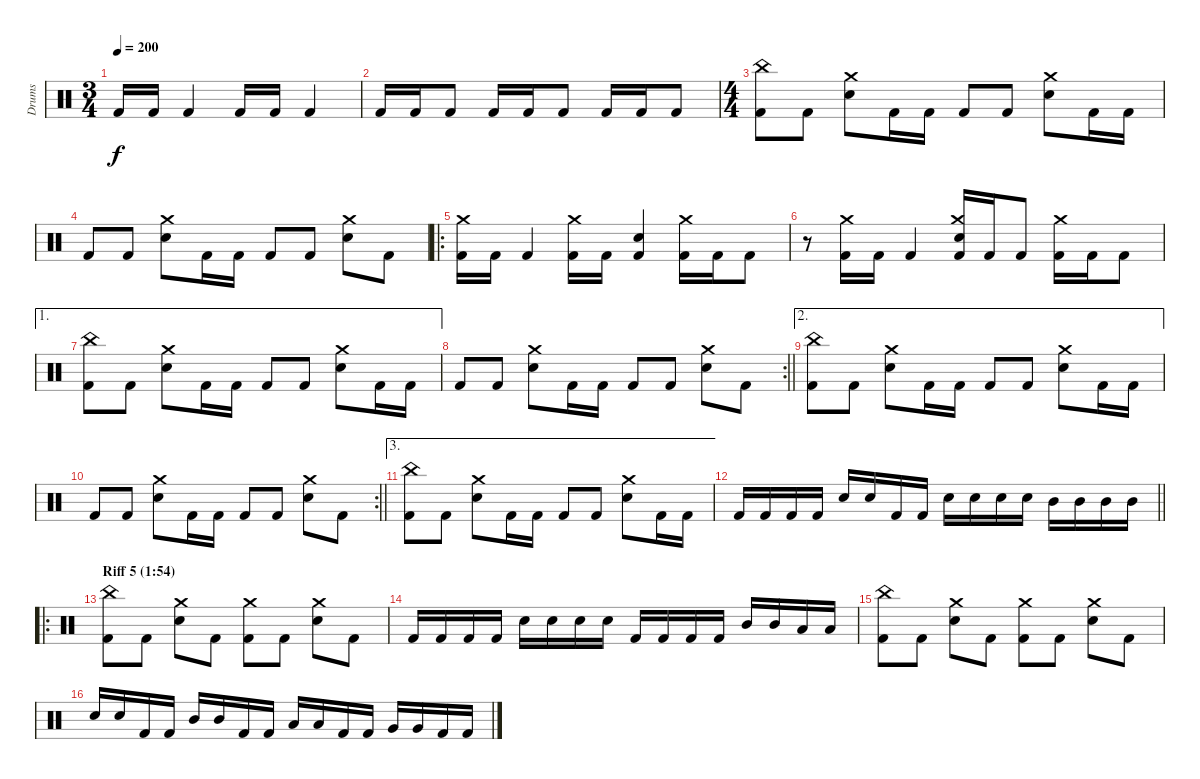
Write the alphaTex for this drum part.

\track ("Drums" "Drums") {instrument percussion}
\staff {score}
\articulation defaults
\ts (3 4)
\tempo 200
\clef neutral
\ks c "Kick (hit) 2".16{dy f} "Kick (hit) 2".16 "Kick (hit) 2".4 "Kick (hit) 2".16 "Kick (hit) 2".16 "Kick (hit) 2".4
|
"Kick (hit) 2".16 "Kick (hit) 2".16 "Kick (hit) 2".8 "Kick (hit) 2".16 "Kick (hit) 2".16 "Kick (hit) 2".8 "Kick (hit) 2".16 "Kick (hit) 2".16 "Kick (hit) 2".8 |
\ts (4 4)
("China (hit)" "Kick (hit) 2").8 "Kick (hit) 2".8 ("Crash medium (hit)" "Electric Snare (hit)").8 "Kick (hit) 2".16 "Kick (hit) 2".16 "Kick (hit) 2".8 "Kick (hit) 2".8 ("Crash medium (hit)" "Electric Snare (hit)").8 "Kick (hit) 2".16 "Kick (hit) 2".16 |
"Kick (hit) 2".8 "Kick (hit) 2".8 ("Crash medium (hit)" "Electric Snare (hit)").8 "Kick (hit) 2".16 "Kick (hit) 2".16 "Kick (hit) 2".8 "Kick (hit) 2".8 ("Crash medium (hit)" "Electric Snare (hit)").8 "Kick (hit) 2".8 |
\ro
("Crash medium (hit)" "Kick (hit) 2").16 "Kick (hit) 2".16 "Kick (hit) 2".4 ("Crash medium (hit)" "Kick (hit) 2").16 "Kick (hit) 2".16 ("Electric Snare (hit)" "Kick (hit) 2").4 ("Crash medium (hit)" "Kick (hit) 2").16 "Kick (hit) 2".16 "Kick (hit) 2".8 |
r.8 ("Crash medium (hit)" "Kick (hit) 2").16 "Kick (hit) 2".16 "Kick (hit) 2".4 ("Crash medium (hit)" "Electric Snare (hit)" "Kick (hit) 2").16 "Kick (hit) 2".16 "Kick (hit) 2".8 ("Crash medium (hit)" "Kick (hit) 2").16 "Kick (hit) 2".16 "Kick (hit) 2".8 |
\ae 1
("China (hit)" "Kick (hit) 2").8 "Kick (hit) 2".8 ("Crash medium (hit)" "Electric Snare (hit)").8 "Kick (hit) 2".16 "Kick (hit) 2".16 "Kick (hit) 2".8 "Kick (hit) 2".8 ("Crash medium (hit)" "Electric Snare (hit)").8 "Kick (hit) 2".16 "Kick (hit) 2".16 |
\rc 2
\barLineRight lightlight "Kick (hit) 2".8 "Kick (hit) 2".8
("Crash medium (hit)" "Electric Snare (hit)").8 "Kick (hit) 2".16 "Kick (hit) 2".16 "Kick (hit) 2".8 "Kick (hit) 2".8 ("Crash medium (hit)" "Electric Snare (hit)").8 "Kick (hit) 2".8 |
\ae 2
("China (hit)" "Kick (hit) 2").8 "Kick (hit) 2".8 ("Crash medium (hit)" "Electric Snare (hit)").8 "Kick (hit) 2".16 "Kick (hit) 2".16 "Kick (hit) 2".8 "Kick (hit) 2".8 ("Crash medium (hit)" "Electric Snare (hit)").8 "Kick (hit) 2".16 "Kick (hit) 2".16 |
\rc 2
\barLineRight lightlight "Kick (hit) 2".8 "Kick (hit) 2".8
("Crash medium (hit)" "Electric Snare (hit)").8 "Kick (hit) 2".16 "Kick (hit) 2".16 "Kick (hit) 2".8 "Kick (hit) 2".8 ("Crash medium (hit)" "Electric Snare (hit)").8 "Kick (hit) 2".8 |
\ae 3
("China (hit)" "Kick (hit) 2").8 "Kick (hit) 2".8 ("Crash medium (hit)" "Electric Snare (hit)").8 "Kick (hit) 2".16 "Kick (hit) 2".16 "Kick (hit) 2".8 "Kick (hit) 2".8 ("Crash medium (hit)" "Electric Snare (hit)").8 "Kick (hit) 2".16 "Kick (hit) 2".16 |
\barLineRight lightlight "Kick (hit) 2".16 "Kick (hit) 2".16 "Kick (hit) 2".16 "Kick (hit) 2".16 "Electric Snare (hit)".16 "Electric Snare (hit)".16 "Kick (hit) 2".16 "Kick (hit) 2".16 "Electric Snare (hit)".16 "Electric Snare (hit)".16 "Electric Snare (hit)".16 "Electric Snare (hit)".16 "Mid Tom (hit)".16 "Mid Tom (hit)".16 "Mid Tom (hit)".16 "Mid Tom (hit)".16
|
\ro
\section ("" "Riff 5 (1:54)")
("China (hit)" "Kick (hit) 2").8 "Kick (hit) 2".8 ("Crash medium (hit)" "Electric Snare (hit)").8 "Kick (hit) 2".8 ("Crash medium (hit)" "Kick (hit) 2").8 "Kick (hit) 2".8 ("Crash medium (hit)" "Electric Snare (hit)").8 "Kick (hit) 2".8 |
"Kick (hit) 2".16 "Kick (hit) 2".16 "Kick (hit) 2".16 "Kick (hit) 2".16 "Electric Snare (hit)".16 "Electric Snare (hit)".16 "Electric Snare (hit)".16 "Electric Snare (hit)".16 "Kick (hit) 2".16 "Kick (hit) 2".16 "Kick (hit) 2".16 "Kick (hit) 2".16 "Mid Tom (hit)".16 "Mid Tom (hit)".16 "Low Tom (hit)".16 "Low Tom (hit)".16 |
("China (hit)" "Kick (hit) 2").8 "Kick (hit) 2".8 ("Crash medium (hit)" "Electric Snare (hit)").8 "Kick (hit) 2".8 ("Crash medium (hit)" "Kick (hit) 2").8 "Kick (hit) 2".8 ("Crash medium (hit)" "Electric Snare (hit)").8 "Kick (hit) 2".8 |
"Electric Snare (hit)".16 "Electric Snare (hit)".16 "Kick (hit) 2".16 "Kick (hit) 2".16 "Mid Tom (hit)".16 "Mid Tom (hit)".16 "Kick (hit) 2".16 "Kick (hit) 2".16 "Low Tom (hit)".16 "Low Tom (hit)".16 "Kick (hit) 2".16 "Kick (hit) 2".16 "Very Low Tom (hit)".16 "Very Low Tom (hit)".16 "Kick (hit) 2".16 "Kick (hit) 2".16
